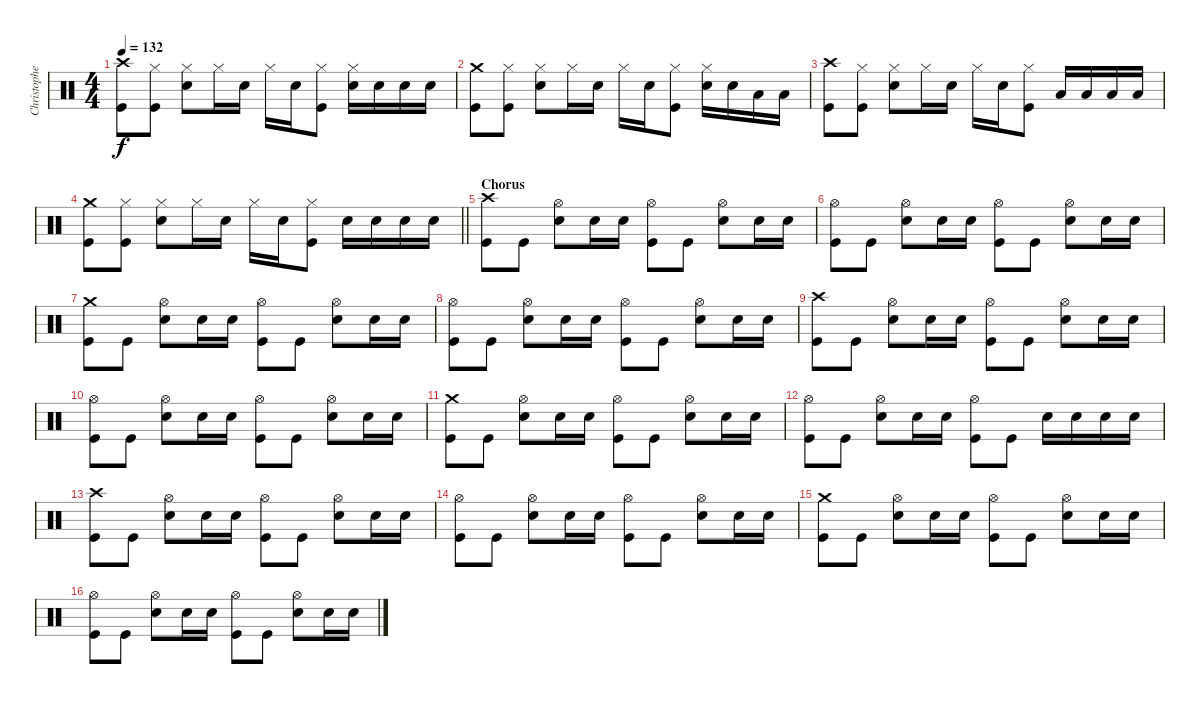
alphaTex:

\track ("Christopher - Drums" "Christophe") {instrument percussion}
\staff {score}
\articulation defaults
\ts (4 4)
\tempo 132
\clef neutral
\ks c
("Crash high (hit)" "Kick (hit)").8{dy f} ("Hi-Hat (closed)" "Kick (hit)").8 ("Hi-Hat (closed)" "Snare (hit) 2").8 "Hi-Hat (closed)".16 "Snare (hit) 2".16 "Hi-Hat (closed)".16 "Snare (hit) 2".16 ("Hi-Hat (closed)" "Kick (hit)").8 ("Hi-Hat (closed)" "Snare (hit) 2").16 "Snare (hit) 2".16 "Snare (hit) 2".16 "Snare (hit) 2".16 |
("Crash medium (hit)" "Kick (hit)").8 ("Hi-Hat (closed)" "Kick (hit)").8 ("Hi-Hat (closed)" "Snare (hit) 2").8 "Hi-Hat (closed)".16 "Snare (hit) 2".16 "Hi-Hat (closed)".16 "Snare (hit) 2".16 ("Hi-Hat (closed)" "Kick (hit)").8 ("Hi-Hat (closed)" "Snare (hit) 2").16 "Snare (hit) 2".16 "Low Tom (hit)".16 "Low Tom (hit)".16 |
("Crash high (hit)" "Kick (hit)").8 ("Hi-Hat (closed)" "Kick (hit)").8 ("Hi-Hat (closed)" "Snare (hit) 2").8 "Hi-Hat (closed)".16 "Snare (hit) 2".16 "Hi-Hat (closed)".16 "Snare (hit) 2".16 ("Hi-Hat (closed)" "Kick (hit)").8 "Low Floor Tom (hit)".16 "Low Floor Tom (hit)".16 "Low Floor Tom (hit)".16 "Low Floor Tom (hit)".16 |
\barLineRight lightlight
("Crash medium (hit)" "Kick (hit)").8 ("Hi-Hat (closed)" "Kick (hit)").8 ("Hi-Hat (closed)" "Snare (hit) 2").8 "Hi-Hat (closed)".16 "Snare (hit) 2".16 "Hi-Hat (closed)".16 "Snare (hit) 2".16 ("Hi-Hat (closed)" "Kick (hit)").8 "Snare (hit) 2".16 "Snare (hit) 2".16 "Snare (hit) 2".16 "Snare (hit) 2".16 |
\section ("" "Chorus")
("Crash high (hit)" "Kick (hit)").8 "Kick (hit)".8 ("Hi-Hat (open)" "Snare (hit) 2").8 "Snare (hit) 2".16 "Snare (hit) 2".16 ("Hi-Hat (open)" "Kick (hit)").8 "Kick (hit)".8 ("Hi-Hat (open)" "Snare (hit) 2").8 "Snare (hit) 2".16 "Snare (hit) 2".16 |
("Hi-Hat (open)" "Kick (hit)").8 "Kick (hit)".8 ("Hi-Hat (open)" "Snare (hit) 2").8 "Snare (hit) 2".16 "Snare (hit) 2".16 ("Hi-Hat (open)" "Kick (hit)").8 "Kick (hit)".8 ("Hi-Hat (open)" "Snare (hit) 2").8 "Snare (hit) 2".16 "Snare (hit) 2".16 |
("Crash medium (hit)" "Kick (hit)").8 "Kick (hit)".8 ("Hi-Hat (open)" "Snare (hit) 2").8 "Snare (hit) 2".16 "Snare (hit) 2".16 ("Hi-Hat (open)" "Kick (hit)").8 "Kick (hit)".8 ("Hi-Hat (open)" "Snare (hit) 2").8 "Snare (hit) 2".16 "Snare (hit) 2".16 |
("Hi-Hat (open)" "Kick (hit)").8 "Kick (hit)".8 ("Hi-Hat (open)" "Snare (hit) 2").8 "Snare (hit) 2".16 "Snare (hit) 2".16 ("Hi-Hat (open)" "Kick (hit)").8 "Kick (hit)".8 ("Hi-Hat (open)" "Snare (hit) 2").8 "Snare (hit) 2".16 "Snare (hit) 2".16 |
("Crash high (hit)" "Kick (hit)").8 "Kick (hit)".8 ("Hi-Hat (open)" "Snare (hit) 2").8 "Snare (hit) 2".16 "Snare (hit) 2".16 ("Hi-Hat (open)" "Kick (hit)").8 "Kick (hit)".8 ("Hi-Hat (open)" "Snare (hit) 2").8 "Snare (hit) 2".16 "Snare (hit) 2".16 |
("Hi-Hat (open)" "Kick (hit)").8 "Kick (hit)".8 ("Hi-Hat (open)" "Snare (hit) 2").8 "Snare (hit) 2".16 "Snare (hit) 2".16 ("Hi-Hat (open)" "Kick (hit)").8 "Kick (hit)".8 ("Hi-Hat (open)" "Snare (hit) 2").8 "Snare (hit) 2".16 "Snare (hit) 2".16 |
("Crash medium (hit)" "Kick (hit)").8 "Kick (hit)".8 ("Hi-Hat (open)" "Snare (hit) 2").8 "Snare (hit) 2".16 "Snare (hit) 2".16 ("Hi-Hat (open)" "Kick (hit)").8 "Kick (hit)".8 ("Hi-Hat (open)" "Snare (hit) 2").8 "Snare (hit) 2".16 "Snare (hit) 2".16 |
("Hi-Hat (open)" "Kick (hit)").8 "Kick (hit)".8 ("Hi-Hat (open)" "Snare (hit) 2").8 "Snare (hit) 2".16 "Snare (hit) 2".16 ("Hi-Hat (open)" "Kick (hit)").8 "Kick (hit)".8 "Snare (hit) 2".16 "Snare (hit) 2".16 "Snare (hit) 2".16 "Snare (hit) 2".16 |
("Crash high (hit)" "Kick (hit)").8 "Kick (hit)".8 ("Hi-Hat (open)" "Snare (hit) 2").8 "Snare (hit) 2".16 "Snare (hit) 2".16 ("Hi-Hat (open)" "Kick (hit)").8 "Kick (hit)".8 ("Hi-Hat (open)" "Snare (hit) 2").8 "Snare (hit) 2".16 "Snare (hit) 2".16 |
("Hi-Hat (open)" "Kick (hit)").8 "Kick (hit)".8 ("Hi-Hat (open)" "Snare (hit) 2").8 "Snare (hit) 2".16 "Snare (hit) 2".16 ("Hi-Hat (open)" "Kick (hit)").8 "Kick (hit)".8 ("Hi-Hat (open)" "Snare (hit) 2").8 "Snare (hit) 2".16 "Snare (hit) 2".16 |
("Crash medium (hit)" "Kick (hit)").8 "Kick (hit)".8 ("Hi-Hat (open)" "Snare (hit) 2").8 "Snare (hit) 2".16 "Snare (hit) 2".16 ("Hi-Hat (open)" "Kick (hit)").8 "Kick (hit)".8 ("Hi-Hat (open)" "Snare (hit) 2").8 "Snare (hit) 2".16 "Snare (hit) 2".16 |
("Hi-Hat (open)" "Kick (hit)").8 "Kick (hit)".8 ("Hi-Hat (open)" "Snare (hit) 2").8 "Snare (hit) 2".16 "Snare (hit) 2".16 ("Hi-Hat (open)" "Kick (hit)").8 "Kick (hit)".8 ("Hi-Hat (open)" "Snare (hit) 2").8 "Snare (hit) 2".16 "Snare (hit) 2".16
